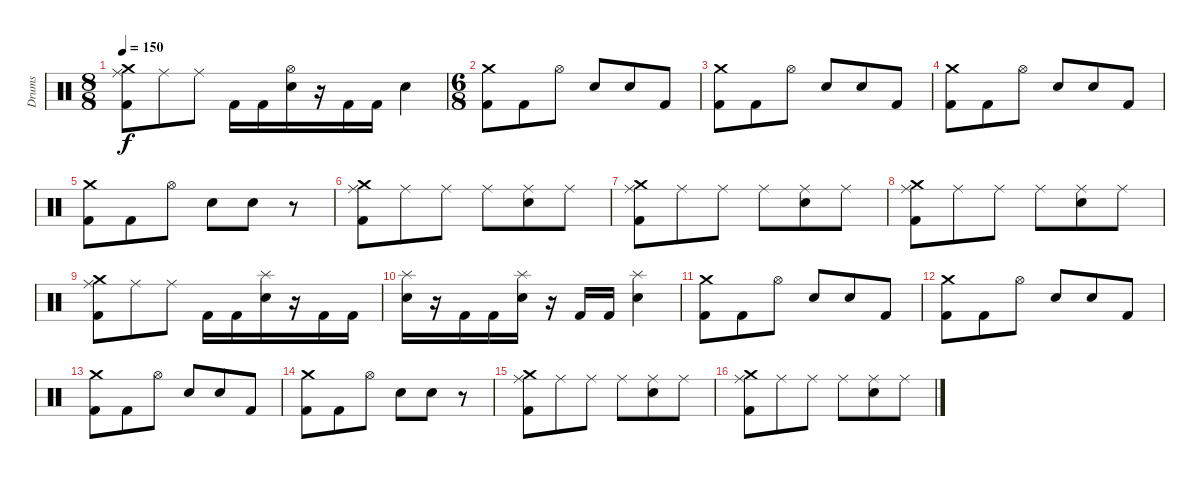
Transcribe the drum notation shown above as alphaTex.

\track ("Drums" "Drums") {instrument percussion}
\staff {score}
\articulation defaults
\ts (8 8)
\tempo 150
\clef neutral
\ks c
("Crash medium (hit)" "Ride (middle)" "Kick (hit) 2").8{dy f} "Ride (middle)".8 "Ride (middle)".8 "Kick (hit) 2".16 "Kick (hit) 2".16 ("Hi-Hat (open)" "Electric Snare (hit)").16 r.16 "Kick (hit) 2".16 "Kick (hit) 2".16 "Electric Snare (hit)".4 |
\ts (6 8)
("Crash medium (hit)" "Kick (hit) 2").8 "Kick (hit) 2".8 "Hi-Hat (open)".8 "Electric Snare (hit)".8 "Electric Snare (hit)".8 "Kick (hit) 2".8 |
("Crash medium (hit)" "Kick (hit) 2").8 "Kick (hit) 2".8 "Hi-Hat (open)".8 "Electric Snare (hit)".8 "Electric Snare (hit)".8 "Kick (hit) 2".8 |
("Crash medium (hit)" "Kick (hit) 2").8 "Kick (hit) 2".8 "Hi-Hat (open)".8 "Electric Snare (hit)".8 "Electric Snare (hit)".8 "Kick (hit) 2".8 |
("Crash medium (hit)" "Kick (hit) 2").8 "Kick (hit) 2".8 "Hi-Hat (open)".8 "Electric Snare (hit)".8 "Electric Snare (hit)".8 r.8 |
("Crash medium (hit)" "Ride (middle)" "Kick (hit) 2").8 "Ride (middle)".8 "Ride (middle)".8 "Ride (middle)".8 ("Ride (middle)" "Electric Snare (hit)").8 "Ride (middle)".8 |
("Crash medium (hit)" "Ride (middle)" "Kick (hit) 2").8 "Ride (middle)".8 "Ride (middle)".8 "Ride (middle)".8 ("Ride (middle)" "Electric Snare (hit)").8 "Ride (middle)".8 |
("Crash medium (hit)" "Ride (middle)" "Kick (hit) 2").8 "Ride (middle)".8 "Ride (middle)".8 "Ride (middle)".8 ("Ride (middle)" "Electric Snare (hit)").8 "Ride (middle)".8 |
("Crash medium (hit)" "Ride (middle)" "Kick (hit) 2").8 "Ride (middle)".8 "Ride (middle)".8 "Kick (hit) 2".16 "Kick (hit) 2".16 ("Splash (hit)" "Electric Snare (hit)").16 r.16 "Kick (hit) 2".16 "Kick (hit) 2".16 |
("Splash (hit)" "Electric Snare (hit)").16 r.16 "Kick (hit) 2".16 "Kick (hit) 2".16 ("Splash (hit)" "Electric Snare (hit)").16 r.16 "Kick (hit) 2".16 "Kick (hit) 2".16 ("Splash (hit)" "Electric Snare (hit)").4 |
("Crash medium (hit)" "Kick (hit) 2").8 "Kick (hit) 2".8 "Hi-Hat (open)".8 "Electric Snare (hit)".8 "Electric Snare (hit)".8 "Kick (hit) 2".8 |
("Crash medium (hit)" "Kick (hit) 2").8 "Kick (hit) 2".8 "Hi-Hat (open)".8 "Electric Snare (hit)".8 "Electric Snare (hit)".8 "Kick (hit) 2".8 |
("Crash medium (hit)" "Kick (hit) 2").8 "Kick (hit) 2".8 "Hi-Hat (open)".8 "Electric Snare (hit)".8 "Electric Snare (hit)".8 "Kick (hit) 2".8 |
("Crash medium (hit)" "Kick (hit) 2").8 "Kick (hit) 2".8 "Hi-Hat (open)".8 "Electric Snare (hit)".8 "Electric Snare (hit)".8 r.8 |
("Crash medium (hit)" "Ride (middle)" "Kick (hit) 2").8 "Ride (middle)".8 "Ride (middle)".8 "Ride (middle)".8 ("Ride (middle)" "Electric Snare (hit)").8 "Ride (middle)".8 |
("Crash medium (hit)" "Ride (middle)" "Kick (hit) 2").8 "Ride (middle)".8 "Ride (middle)".8 "Ride (middle)".8 ("Ride (middle)" "Electric Snare (hit)").8 "Ride (middle)".8
